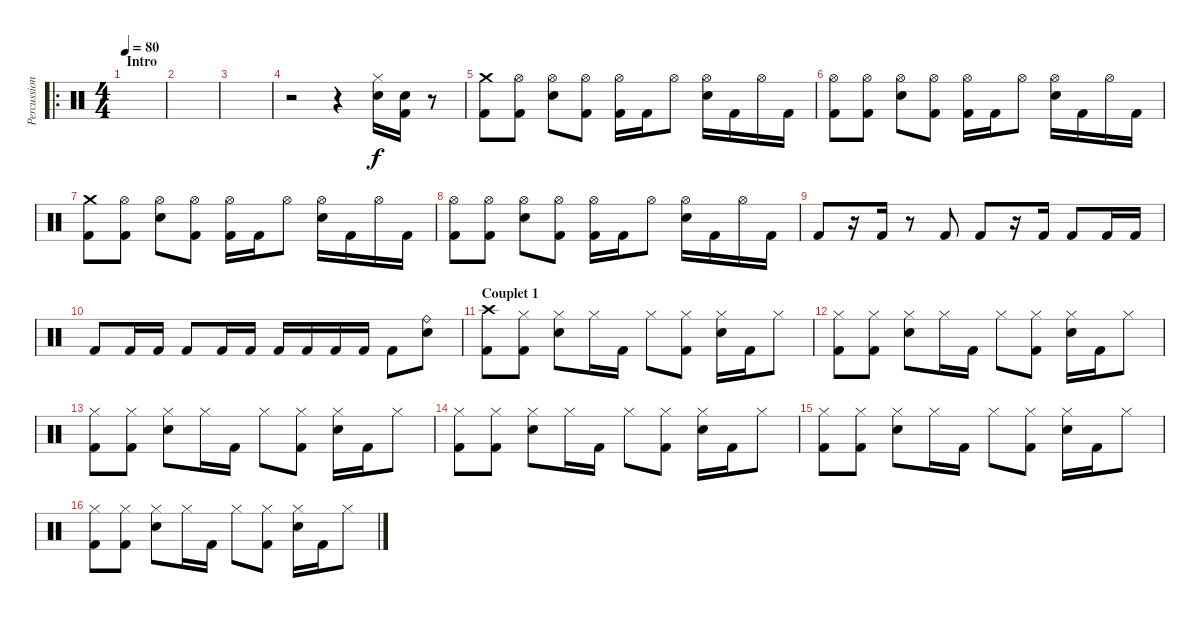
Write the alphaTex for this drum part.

\track ("Percussions" "Percussion") {instrument percussion}
\staff {score}
\articulation defaults
\ro
\ts (4 4)
\section ("" "Intro")
\tempo 80
\clef neutral
\ks c
|
|
|
r.2 r.4 ("Hi-Hat (closed)" "Electric Snare (hit)").16 ("Snare (hit) 2" "Kick (hit) 2").16 r.8 |
("Crash medium (hit)" "Kick (hit) 2").8 ("Hi-Hat (open)" "Kick (hit) 2").8 ("Hi-Hat (open)" "Electric Snare (hit)").8 ("Hi-Hat (open)" "Kick (hit) 2").8 ("Hi-Hat (open)" "Kick (hit) 2").16 "Kick (hit) 2".16 "Hi-Hat (open)".8 ("Hi-Hat (open)" "Electric Snare (hit)").16 "Kick (hit) 2".16 "Hi-Hat (open)".16 "Kick (hit) 2".16 |
("Hi-Hat (open)" "Kick (hit) 2").8 ("Hi-Hat (open)" "Kick (hit) 2").8 ("Hi-Hat (open)" "Electric Snare (hit)").8 ("Hi-Hat (open)" "Kick (hit) 2").8 ("Hi-Hat (open)" "Kick (hit) 2").16 "Kick (hit) 2".16 "Hi-Hat (open)".8 ("Hi-Hat (open)" "Electric Snare (hit)").16 "Kick (hit) 2".16 "Hi-Hat (open)".16 "Kick (hit) 2".16 |
("Crash medium (hit)" "Kick (hit) 2").8 ("Hi-Hat (open)" "Kick (hit) 2").8 ("Hi-Hat (open)" "Electric Snare (hit)").8 ("Hi-Hat (open)" "Kick (hit) 2").8 ("Hi-Hat (open)" "Kick (hit) 2").16 "Kick (hit) 2".16 "Hi-Hat (open)".8 ("Hi-Hat (open)" "Electric Snare (hit)").16 "Kick (hit) 2".16 "Hi-Hat (open)".16 "Kick (hit) 2".16 |
("Hi-Hat (open)" "Kick (hit) 2").8 ("Hi-Hat (open)" "Kick (hit) 2").8 ("Hi-Hat (open)" "Electric Snare (hit)").8 ("Hi-Hat (open)" "Kick (hit) 2").8 ("Hi-Hat (open)" "Kick (hit) 2").16 "Kick (hit) 2".16 "Hi-Hat (open)".8 ("Hi-Hat (open)" "Electric Snare (hit)").16 "Kick (hit) 2".16 "Hi-Hat (open)".16 "Kick (hit) 2".16 |
"Kick (hit) 2".8 r.16 "Kick (hit) 2".16 r.8 "Kick (hit) 2".8 "Kick (hit) 2".8 r.16 "Kick (hit) 2".16 "Kick (hit) 2".8 "Kick (hit) 2".16 "Kick (hit) 2".16 |
"Kick (hit) 2".8 "Kick (hit) 2".16 "Kick (hit) 2".16 "Kick (hit) 2".8 "Kick (hit) 2".16 "Kick (hit) 2".16 "Kick (hit) 2".16 "Kick (hit) 2".16 "Kick (hit) 2".16 "Kick (hit) 2".16 "Kick (hit) 2".8 ("Ride (bell)" "Electric Snare (hit)").8 |
\section ("" "Couplet 1")
("Crash high (hit)" "Kick (hit) 2").8 ("Hi-Hat (closed)" "Kick (hit) 2").8 ("Hi-Hat (closed)" "Electric Snare (hit)").8 "Hi-Hat (closed)".16 "Kick (hit) 2".16 "Hi-Hat (closed)".8 ("Hi-Hat (closed)" "Kick (hit) 2").8 ("Hi-Hat (closed)" "Electric Snare (hit)").16 "Kick (hit) 2".16 "Hi-Hat (closed)".8 |
("Hi-Hat (closed)" "Kick (hit) 2").8 ("Hi-Hat (closed)" "Kick (hit) 2").8 ("Hi-Hat (closed)" "Electric Snare (hit)").8 "Hi-Hat (closed)".16 "Kick (hit) 2".16 "Hi-Hat (closed)".8 ("Hi-Hat (closed)" "Kick (hit) 2").8 ("Hi-Hat (closed)" "Electric Snare (hit)").16 "Kick (hit) 2".16 "Hi-Hat (closed)".8 |
("Hi-Hat (closed)" "Kick (hit) 2").8 ("Hi-Hat (closed)" "Kick (hit) 2").8 ("Hi-Hat (closed)" "Electric Snare (hit)").8 "Hi-Hat (closed)".16 "Kick (hit) 2".16 "Hi-Hat (closed)".8 ("Hi-Hat (closed)" "Kick (hit) 2").8 ("Hi-Hat (closed)" "Electric Snare (hit)").16 "Kick (hit) 2".16 "Hi-Hat (closed)".8 |
("Hi-Hat (closed)" "Kick (hit) 2").8 ("Hi-Hat (closed)" "Kick (hit) 2").8 ("Hi-Hat (closed)" "Electric Snare (hit)").8 "Hi-Hat (closed)".16 "Kick (hit) 2".16 "Hi-Hat (closed)".8 ("Hi-Hat (closed)" "Kick (hit) 2").8 ("Hi-Hat (closed)" "Electric Snare (hit)").16 "Kick (hit) 2".16 "Hi-Hat (closed)".8 |
("Hi-Hat (closed)" "Kick (hit) 2").8 ("Hi-Hat (closed)" "Kick (hit) 2").8 ("Hi-Hat (closed)" "Electric Snare (hit)").8 "Hi-Hat (closed)".16 "Kick (hit) 2".16 "Hi-Hat (closed)".8 ("Hi-Hat (closed)" "Kick (hit) 2").8 ("Hi-Hat (closed)" "Electric Snare (hit)").16 "Kick (hit) 2".16 "Hi-Hat (closed)".8 |
("Hi-Hat (closed)" "Kick (hit) 2").8 ("Hi-Hat (closed)" "Kick (hit) 2").8 ("Hi-Hat (closed)" "Electric Snare (hit)").8 "Hi-Hat (closed)".16 "Kick (hit) 2".16 "Hi-Hat (closed)".8 ("Hi-Hat (closed)" "Kick (hit) 2").8 ("Hi-Hat (closed)" "Electric Snare (hit)").16 "Kick (hit) 2".16 "Hi-Hat (closed)".8
